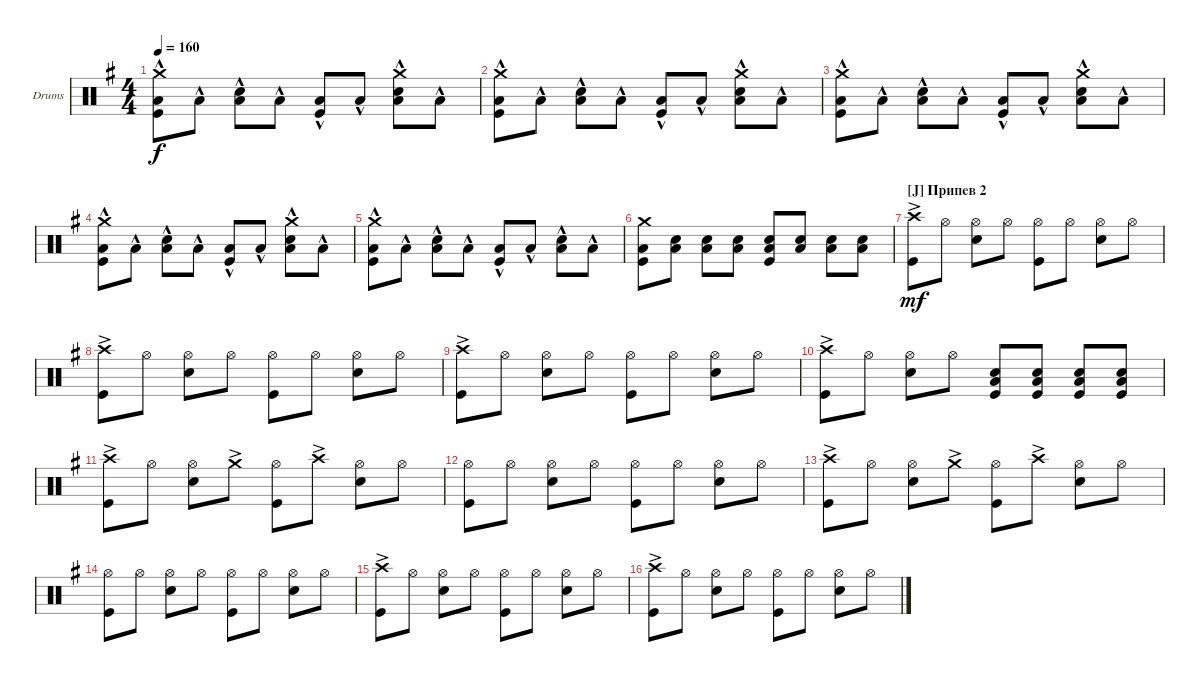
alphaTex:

\defaultSystemsLayout 4
\bracketExtendMode groupsimilarinstruments
\firstSystemTrackNameOrientation horizontal
\otherSystemsTrackNameOrientation horizontal
\track ("Drumkit" "Drums") {instrument percussion}
\staff {score}
\articulation defaults
\ts (4 4)
\tempo 160
\clef neutral
\ks eminor
("Kick (hit)" "Low Tom (hit)"{hac} "Crash medium (hit)").8{dy f} "Low Tom (hit)"{hac}.8 ("Snare (hit) 2" "Low Tom (hit)"{hac}).8 "Low Tom (hit)"{hac}.8 ("Kick (hit)" "Low Tom (hit)"{hac}).8 "Low Tom (hit)"{hac}.8 ("Snare (hit) 2" "Low Tom (hit)"{hac} "Crash medium (hit)").8 "Low Tom (hit)"{hac}.8 |
("Kick (hit)" "Low Tom (hit)"{hac} "Crash medium (hit)").8 "Low Tom (hit)"{hac}.8 ("Snare (hit) 2" "Low Tom (hit)"{hac}).8 "Low Tom (hit)"{hac}.8 ("Kick (hit)" "Low Tom (hit)"{hac}).8 "Low Tom (hit)"{hac}.8 ("Snare (hit) 2" "Low Tom (hit)"{hac} "Crash medium (hit)").8 "Low Tom (hit)"{hac}.8 |
("Kick (hit)" "Low Tom (hit)"{hac} "Crash medium (hit)").8 "Low Tom (hit)"{hac}.8 ("Snare (hit) 2" "Low Tom (hit)"{hac}).8 "Low Tom (hit)"{hac}.8 ("Kick (hit)" "Low Tom (hit)"{hac}).8 "Low Tom (hit)"{hac}.8 ("Snare (hit) 2" "Low Tom (hit)"{hac} "Crash medium (hit)").8 "Low Tom (hit)"{hac}.8 |
("Kick (hit)" "Low Tom (hit)"{hac} "Crash medium (hit)").8 "Low Tom (hit)"{hac}.8 ("Snare (hit) 2" "Low Tom (hit)"{hac}).8 "Low Tom (hit)"{hac}.8 ("Kick (hit)" "Low Tom (hit)"{hac}).8 "Low Tom (hit)"{hac}.8 ("Snare (hit) 2" "Low Tom (hit)"{hac} "Crash medium (hit)").8 "Low Tom (hit)"{hac}.8 |
("Kick (hit)" "Low Tom (hit)"{hac} "Crash medium (hit)").8 "Low Tom (hit)"{hac}.8 ("Snare (hit) 2" "Low Tom (hit)"{hac}).8 "Low Tom (hit)"{hac}.8 ("Kick (hit)" "Low Tom (hit)"{hac}).8 "Low Tom (hit)"{hac}.8 ("Snare (hit) 2" "Low Tom (hit)"{hac}).8 "Low Tom (hit)"{hac}.8 |
("Kick (hit)" "Low Tom (hit)" "Crash medium (hit)").8 ("Low Tom (hit)" "Snare (hit) 2").8 ("Snare (hit) 2" "Low Tom (hit)").8 ("Low Tom (hit)" "Snare (hit) 2").8 ("Kick (hit)" "Low Tom (hit)" "Snare (hit) 2").8 ("Low Tom (hit)" "Snare (hit) 2").8 ("Snare (hit) 2" "Low Tom (hit)").8 ("Low Tom (hit)" "Snare (hit) 2").8 |
\section ("J" "Припев 2")
("Kick (hit)" "Crash high (hit)"{ac}).8{dy mf} "Hi-Hat (open)".8 ("Hi-Hat (open)" "Snare (hit) 2").8 "Hi-Hat (open)".8 ("Hi-Hat (open)" "Kick (hit)").8 "Hi-Hat (open)".8 ("Hi-Hat (open)" "Snare (hit) 2").8 "Hi-Hat (open)".8 |
("Kick (hit)" "Crash high (hit)"{ac}).8 "Hi-Hat (open)".8 ("Hi-Hat (open)" "Snare (hit) 2").8 "Hi-Hat (open)".8 ("Hi-Hat (open)" "Kick (hit)").8 "Hi-Hat (open)".8 ("Hi-Hat (open)" "Snare (hit) 2").8 "Hi-Hat (open)".8 |
("Kick (hit)" "Crash high (hit)"{ac}).8 "Hi-Hat (open)".8 ("Hi-Hat (open)" "Snare (hit) 2").8 "Hi-Hat (open)".8 ("Hi-Hat (open)" "Kick (hit)").8 "Hi-Hat (open)".8 ("Hi-Hat (open)" "Snare (hit) 2").8 "Hi-Hat (open)".8 |
("Kick (hit)" "Crash high (hit)"{ac}).8 "Hi-Hat (open)".8 ("Hi-Hat (open)" "Snare (hit) 2").8 "Hi-Hat (open)".8 ("Snare (hit) 2" "Low Tom (hit)" "Kick (hit)").8 ("Snare (hit) 2" "Low Tom (hit)" "Kick (hit)").8 ("Snare (hit) 2" "Low Tom (hit)" "Kick (hit)").8 ("Snare (hit) 2" "Low Tom (hit)" "Kick (hit)").8 |
("Kick (hit)" "Crash high (hit)"{ac}).8 "Hi-Hat (open)".8 ("Hi-Hat (open)" "Snare (hit) 2").8 "Crash medium (hit)"{ac}.8 ("Hi-Hat (open)" "Kick (hit)").8 "Crash high (hit)"{ac}.8 ("Snare (hit) 2" "Hi-Hat (open)").8 "Hi-Hat (open)".8 |
("Kick (hit)" "Hi-Hat (open)").8 "Hi-Hat (open)".8 ("Hi-Hat (open)" "Snare (hit) 2").8 "Hi-Hat (open)".8 ("Hi-Hat (open)" "Kick (hit)").8 "Hi-Hat (open)".8 ("Hi-Hat (open)" "Snare (hit) 2").8 "Hi-Hat (open)".8 |
("Kick (hit)" "Crash high (hit)"{ac}).8 "Hi-Hat (open)".8 ("Hi-Hat (open)" "Snare (hit) 2").8 "Crash medium (hit)"{ac}.8 ("Hi-Hat (open)" "Kick (hit)").8 "Crash high (hit)"{ac}.8 ("Snare (hit) 2" "Hi-Hat (open)").8 "Hi-Hat (open)".8 |
("Kick (hit)" "Hi-Hat (open)").8 "Hi-Hat (open)".8 ("Hi-Hat (open)" "Snare (hit) 2").8 "Hi-Hat (open)".8 ("Hi-Hat (open)" "Kick (hit)").8 "Hi-Hat (open)".8 ("Hi-Hat (open)" "Snare (hit) 2").8 "Hi-Hat (open)".8 |
("Kick (hit)" "Crash high (hit)"{ac}).8 "Hi-Hat (open)".8 ("Hi-Hat (open)" "Snare (hit) 2").8 "Hi-Hat (open)".8 ("Hi-Hat (open)" "Kick (hit)").8 "Hi-Hat (open)".8 ("Hi-Hat (open)" "Snare (hit) 2").8 "Hi-Hat (open)".8 |
("Kick (hit)" "Crash high (hit)"{ac}).8 "Hi-Hat (open)".8 ("Hi-Hat (open)" "Snare (hit) 2").8 "Hi-Hat (open)".8 ("Hi-Hat (open)" "Kick (hit)").8 "Hi-Hat (open)".8 ("Hi-Hat (open)" "Snare (hit) 2").8 "Hi-Hat (open)".8
